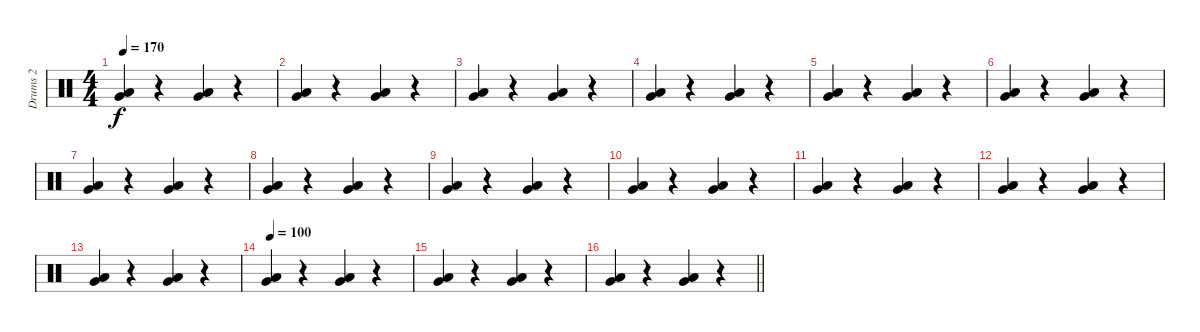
\track ("Drums 2" "Drums 2") {instrument percussion}
\staff {score}
\articulation defaults
\ts (4 4)
\tempo 170
\clef neutral
\ks c
("Very Low Tom (hit)" "Low Tom (hit)").4{dy f} r.4 ("Very Low Tom (hit)" "Low Tom (hit)").4 r.4 |
("Very Low Tom (hit)" "Low Tom (hit)").4 r.4 ("Very Low Tom (hit)" "Low Tom (hit)").4 r.4 |
("Very Low Tom (hit)" "Low Tom (hit)").4 r.4 ("Very Low Tom (hit)" "Low Tom (hit)").4 r.4 |
("Very Low Tom (hit)" "Low Tom (hit)").4 r.4 ("Very Low Tom (hit)" "Low Tom (hit)").4 r.4 |
("Very Low Tom (hit)" "Low Tom (hit)").4 r.4 ("Very Low Tom (hit)" "Low Tom (hit)").4 r.4 |
("Very Low Tom (hit)" "Low Tom (hit)").4 r.4 ("Very Low Tom (hit)" "Low Tom (hit)").4 r.4 |
("Very Low Tom (hit)" "Low Tom (hit)").4 r.4 ("Very Low Tom (hit)" "Low Tom (hit)").4 r.4 |
("Very Low Tom (hit)" "Low Tom (hit)").4 r.4 ("Very Low Tom (hit)" "Low Tom (hit)").4 r.4 |
("Very Low Tom (hit)" "Low Tom (hit)").4 r.4 ("Very Low Tom (hit)" "Low Tom (hit)").4 r.4 |
("Very Low Tom (hit)" "Low Tom (hit)").4 r.4 ("Very Low Tom (hit)" "Low Tom (hit)").4 r.4 |
("Very Low Tom (hit)" "Low Tom (hit)").4 r.4 ("Very Low Tom (hit)" "Low Tom (hit)").4 r.4 |
("Very Low Tom (hit)" "Low Tom (hit)").4 r.4 ("Very Low Tom (hit)" "Low Tom (hit)").4 r.4 |
("Very Low Tom (hit)" "Low Tom (hit)").4 r.4 ("Very Low Tom (hit)" "Low Tom (hit)").4 r.4 |
\tempo 100
("Very Low Tom (hit)" "Low Tom (hit)").4 r.4 ("Very Low Tom (hit)" "Low Tom (hit)").4 r.4 |
("Very Low Tom (hit)" "Low Tom (hit)").4 r.4 ("Very Low Tom (hit)" "Low Tom (hit)").4 r.4 |
\barLineRight lightlight
("Very Low Tom (hit)" "Low Tom (hit)").4 r.4 ("Very Low Tom (hit)" "Low Tom (hit)").4 r.4
